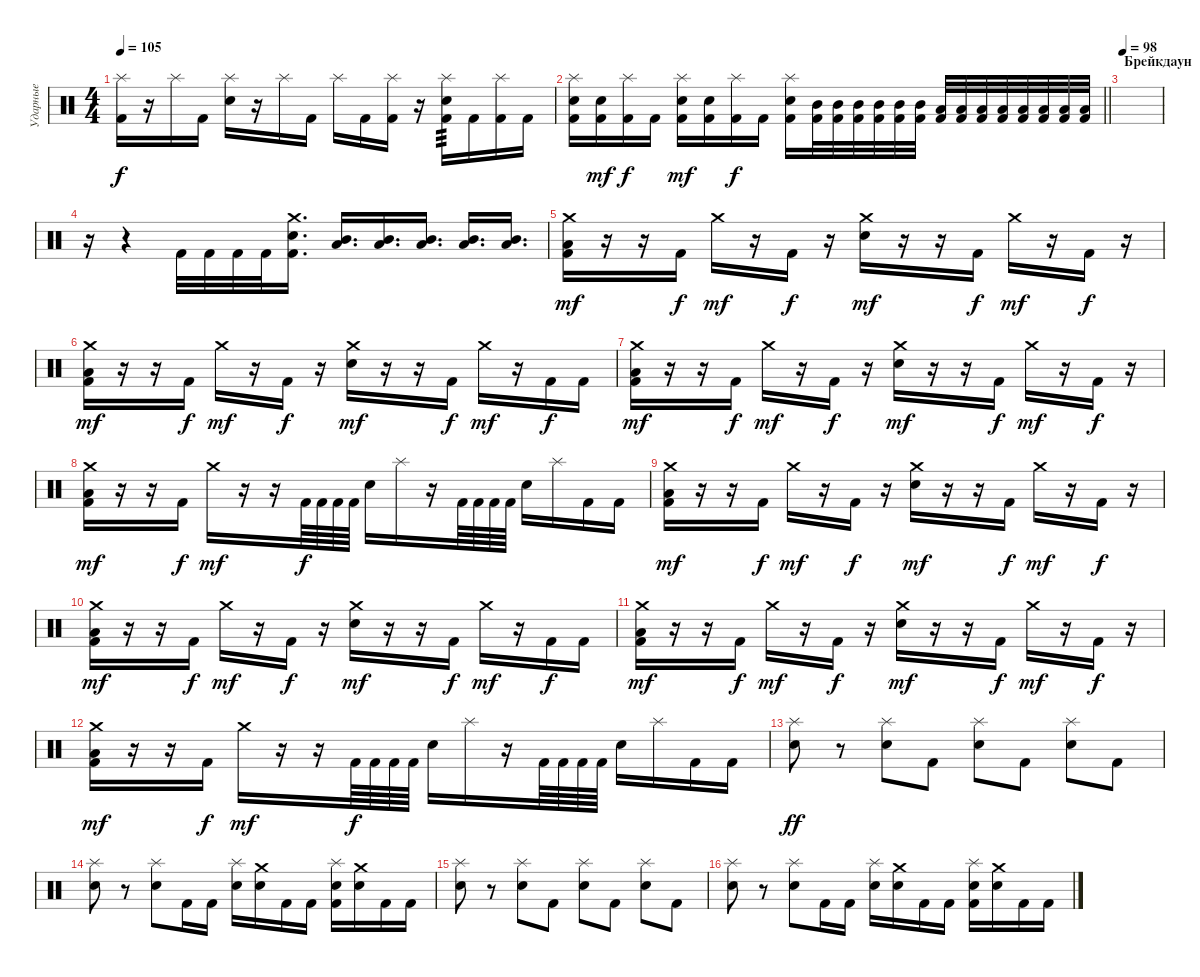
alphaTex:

\track ("Ударные" "Ударные") {instrument percussion}
\staff {score}
\articulation defaults
\ts (4 4)
\tempo 105
\clef neutral
\ks c
("Splash (hit)" "Kick (hit) 2").16{dy f} r.16 "Splash (hit)".16 "Kick (hit) 2".16 ("Splash (hit)" "Electric Snare (hit)").16 r.16 "Splash (hit)".16 "Kick (hit) 2".16 "Splash (hit)".16 "Kick (hit) 2".16 ("Splash (hit)" "Kick (hit) 2").16 r.16 ("Splash (hit)" "Electric Snare (hit)" "Kick (hit) 2").16{tp 3} "Kick (hit) 2".16 ("Splash (hit)" "Kick (hit) 2").16 "Kick (hit) 2".16 |
\barLineRight lightlight
("Splash (hit)" "Electric Snare (hit)" "Kick (hit) 2").16 ("Electric Snare (hit)" "Kick (hit) 2").16{dy mf} ("Splash (hit)" "Kick (hit) 2").16{dy f} "Kick (hit) 2".16 ("Splash (hit)" "Electric Snare (hit)" "Kick (hit) 2").16{dy mf} ("Electric Snare (hit)" "Kick (hit) 2").16 ("Splash (hit)" "Kick (hit) 2").16{dy f} "Kick (hit) 2".16 ("Splash (hit)" "Electric Snare (hit)" "Kick (hit) 2").16 ("Mid Tom (hit)" "Kick (hit) 2").32 ("Mid Tom (hit)" "Kick (hit) 2").32 ("Mid Tom (hit)" "Kick (hit) 2").32 ("Mid Tom (hit)" "Kick (hit) 2").32 ("Mid Tom (hit)" "Kick (hit) 2").32 ("Mid Tom (hit)" "Kick (hit) 2").32 ("Low Tom (hit)" "Kick (hit) 2").32 ("Low Tom (hit)" "Kick (hit) 2").32 ("Low Tom (hit)" "Kick (hit) 2").32 ("Low Tom (hit)" "Kick (hit) 2").32 ("Low Tom (hit)" "Kick (hit) 2").32 ("Low Tom (hit)" "Kick (hit) 2").32 ("Low Tom (hit)" "Kick (hit) 2").32 ("Low Tom (hit)" "Kick (hit) 2").32 |
\section ("" "Брейкдаун")
\tempo 98
|
r.16 r.4 "Kick (hit) 2".32 "Kick (hit) 2".32 "Kick (hit) 2".32 "Kick (hit) 2".32 ("Crash medium (hit)" "Electric Snare (hit)" "Kick (hit) 2").16{d} ("Mid Tom (hit)" "Low Tom (hit)").16{d} ("Mid Tom (hit)" "Low Tom (hit)").16{d} ("Mid Tom (hit)" "Low Tom (hit)").16{d} ("Mid Tom (hit)" "Low Tom (hit)").16{d} ("Mid Tom (hit)" "Low Tom (hit)").16{d} |
("Crash medium (hit)" "Low Tom (hit)" "Kick (hit) 2").16{dy mf} r.16 r.16 "Kick (hit) 2".16{dy f} "Crash medium (hit)".16{dy mf} r.16 "Kick (hit) 2".16{dy f} r.16 ("Crash medium (hit)" "Electric Snare (hit)").16{dy mf} r.16 r.16 "Kick (hit) 2".16{dy f} "Crash medium (hit)".16{dy mf} r.16 "Kick (hit) 2".16{dy f} r.16 |
("Crash medium (hit)" "Low Tom (hit)" "Kick (hit) 2").16{dy mf} r.16 r.16 "Kick (hit) 2".16{dy f} "Crash medium (hit)".16{dy mf} r.16 "Kick (hit) 2".16{dy f} r.16 ("Crash medium (hit)" "Electric Snare (hit)").16{dy mf} r.16 r.16 "Kick (hit) 2".16{dy f} "Crash medium (hit)".16{dy mf} r.16 "Kick (hit) 2".16{dy f} "Kick (hit) 2".16 |
("Crash medium (hit)" "Low Tom (hit)" "Kick (hit) 2").16{dy mf} r.16 r.16 "Kick (hit) 2".16{dy f} "Crash medium (hit)".16{dy mf} r.16 "Kick (hit) 2".16{dy f} r.16 ("Crash medium (hit)" "Electric Snare (hit)").16{dy mf} r.16 r.16 "Kick (hit) 2".16{dy f} "Crash medium (hit)".16{dy mf} r.16 "Kick (hit) 2".16{dy f} r.16 |
("Crash medium (hit)" "Low Tom (hit)" "Kick (hit) 2").16{dy mf} r.16 r.16 "Kick (hit) 2".16{dy f} "Crash medium (hit)".16{dy mf} r.16 r.16 "Kick (hit) 2".64{dy f} "Kick (hit) 2".64 "Kick (hit) 2".64 "Kick (hit) 2".64 "Electric Snare (hit)".16 "Splash (hit)".16 r.16 "Kick (hit) 2".64 "Kick (hit) 2".64 "Kick (hit) 2".64 "Kick (hit) 2".64 "Electric Snare (hit)".16 "Splash (hit)".16 "Kick (hit) 2".16 "Kick (hit) 2".16 |
("Crash medium (hit)" "Low Tom (hit)" "Kick (hit) 2").16{dy mf} r.16 r.16 "Kick (hit) 2".16{dy f} "Crash medium (hit)".16{dy mf} r.16 "Kick (hit) 2".16{dy f} r.16 ("Crash medium (hit)" "Electric Snare (hit)").16{dy mf} r.16 r.16 "Kick (hit) 2".16{dy f} "Crash medium (hit)".16{dy mf} r.16 "Kick (hit) 2".16{dy f} r.16 |
("Crash medium (hit)" "Low Tom (hit)" "Kick (hit) 2").16{dy mf} r.16 r.16 "Kick (hit) 2".16{dy f} "Crash medium (hit)".16{dy mf} r.16 "Kick (hit) 2".16{dy f} r.16 ("Crash medium (hit)" "Electric Snare (hit)").16{dy mf} r.16 r.16 "Kick (hit) 2".16{dy f} "Crash medium (hit)".16{dy mf} r.16 "Kick (hit) 2".16{dy f} "Kick (hit) 2".16 |
("Crash medium (hit)" "Low Tom (hit)" "Kick (hit) 2").16{dy mf} r.16 r.16 "Kick (hit) 2".16{dy f} "Crash medium (hit)".16{dy mf} r.16 "Kick (hit) 2".16{dy f} r.16 ("Crash medium (hit)" "Electric Snare (hit)").16{dy mf} r.16 r.16 "Kick (hit) 2".16{dy f} "Crash medium (hit)".16{dy mf} r.16 "Kick (hit) 2".16{dy f} r.16 |
("Crash medium (hit)" "Low Tom (hit)" "Kick (hit) 2").16{dy mf} r.16 r.16 "Kick (hit) 2".16{dy f} "Crash medium (hit)".16{dy mf} r.16 r.16 "Kick (hit) 2".64{dy f} "Kick (hit) 2".64 "Kick (hit) 2".64 "Kick (hit) 2".64 "Electric Snare (hit)".16 "Splash (hit)".16 r.16 "Kick (hit) 2".64 "Kick (hit) 2".64 "Kick (hit) 2".64 "Kick (hit) 2".64 "Electric Snare (hit)".16 "Splash (hit)".16 "Kick (hit) 2".16 "Kick (hit) 2".16 |
("Splash (hit)" "Electric Snare (hit)").8{dy ff} r.8 ("Splash (hit)" "Electric Snare (hit)").8 "Kick (hit) 2".8 ("Splash (hit)" "Electric Snare (hit)").8 "Kick (hit) 2".8 ("Splash (hit)" "Electric Snare (hit)").8 "Kick (hit) 2".8 |
("Splash (hit)" "Electric Snare (hit)").8 r.8 ("Splash (hit)" "Electric Snare (hit)").8 "Kick (hit) 2".16 "Kick (hit) 2".16 ("Splash (hit)" "Electric Snare (hit)").16 ("Crash medium (hit)" "Electric Snare (hit)").16 "Kick (hit) 2".16 "Kick (hit) 2".16 ("Splash (hit)" "Electric Snare (hit)" "Kick (hit) 2").16 ("Crash medium (hit)" "Electric Snare (hit)").16 "Kick (hit) 2".16 "Kick (hit) 2".16 |
("Splash (hit)" "Electric Snare (hit)").8 r.8 ("Splash (hit)" "Electric Snare (hit)").8 "Kick (hit) 2".8 ("Splash (hit)" "Electric Snare (hit)").8 "Kick (hit) 2".8 ("Splash (hit)" "Electric Snare (hit)").8 "Kick (hit) 2".8 |
("Splash (hit)" "Electric Snare (hit)").8 r.8 ("Splash (hit)" "Electric Snare (hit)").8 "Kick (hit) 2".16 "Kick (hit) 2".16 ("Splash (hit)" "Electric Snare (hit)").16 ("Crash medium (hit)" "Electric Snare (hit)").16 "Kick (hit) 2".16 "Kick (hit) 2".16 ("Splash (hit)" "Electric Snare (hit)" "Kick (hit) 2").16 ("Crash medium (hit)" "Electric Snare (hit)").16 "Kick (hit) 2".16 "Kick (hit) 2".16
